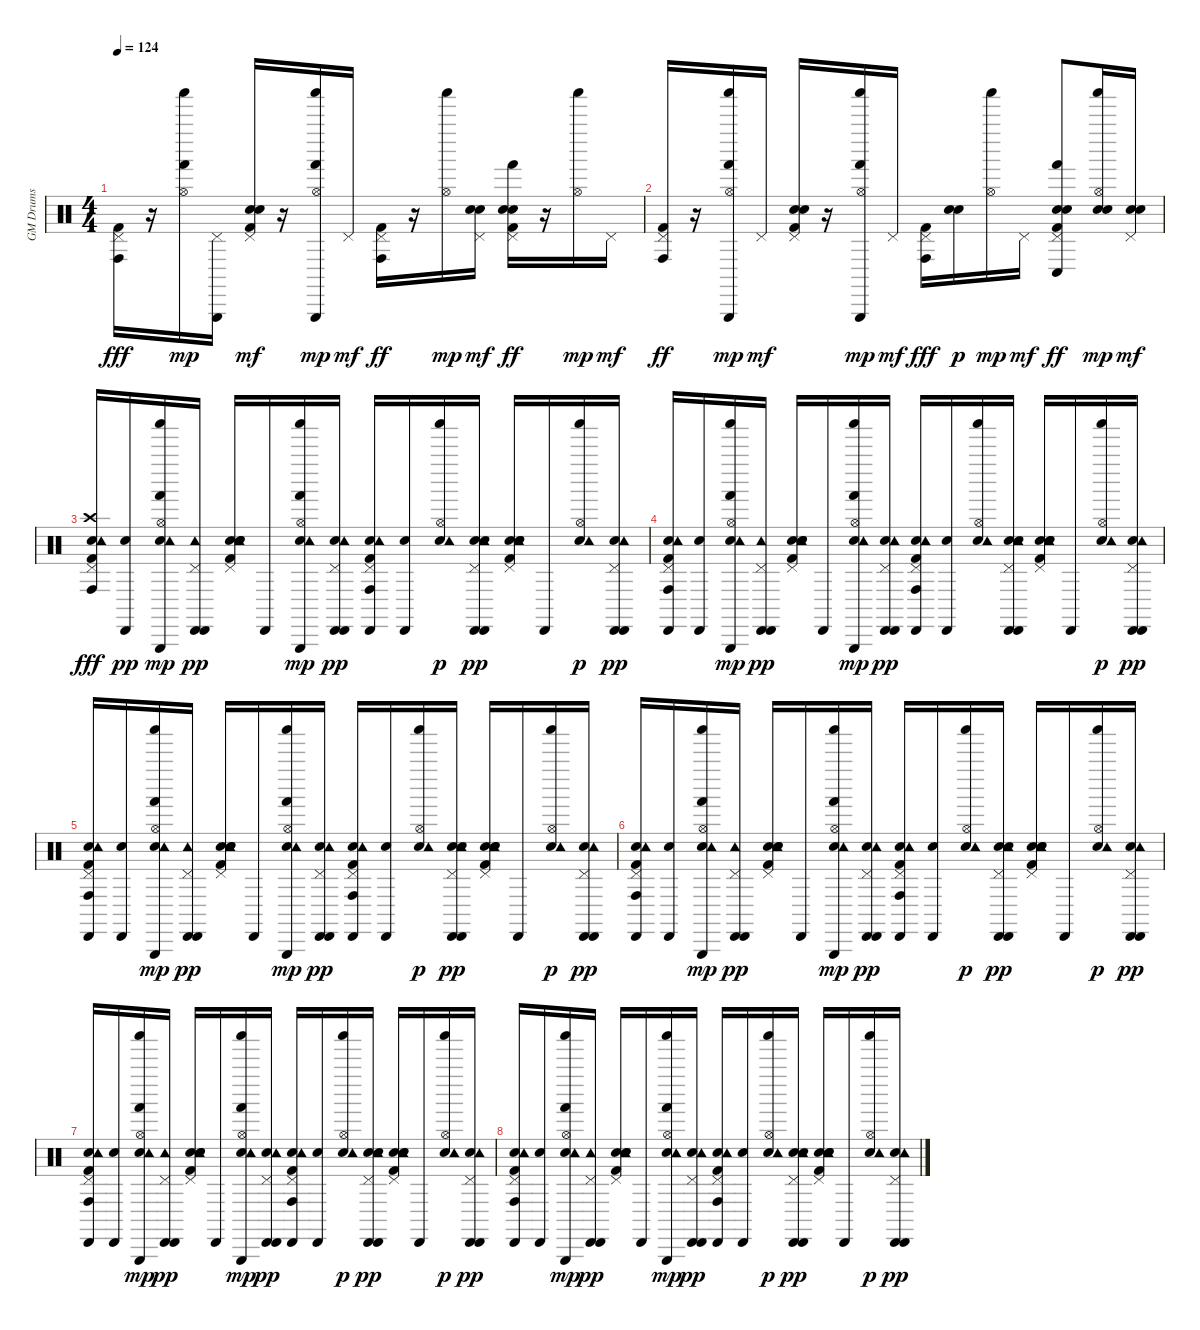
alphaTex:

\track ("GM Drums" "GM Drums") {instrument percussion}
\staff {score}
\articulation defaults
\ts (4 4)
\tempo 124
\clef neutral
\ks c
("Kick (hit) 2" "Pedal Hi-Hat (hit)" "Conga high (hit)").16{dy fff} r.16 ("Hi-Hat (open)" "Hand (hit)" "Shaker (hit)").16{dy mp} ("Pedal Hi-Hat (hit)" "Triangle (hit)").16 ("Kick (hit) 2" "Snare (hit) 2" "Hand Clap (hit)" "Pedal Hi-Hat (hit)").16{dy mf} r.16 ("Hi-Hat (open)" "Hand (hit)" "Triangle (hit)" "Shaker (hit)").16{dy mp} "Pedal Hi-Hat (hit)".16{dy mf} ("Kick (hit) 2" "Pedal Hi-Hat (hit)" "Conga high (hit)").16{dy ff} r.16 ("Hi-Hat (open)" "Shaker (hit)").16{dy mp} ("Snare (hit) 2" "Hand Clap (hit)" "Pedal Hi-Hat (hit)").16{dy mf} ("Kick (hit) 2" "Snare (hit) 2" "Hand Clap (hit)" "Pedal Hi-Hat (hit)" "Hand (hit)").16{dy ff} r.16 ("Hi-Hat (open)" "Shaker (hit)").16{dy mp} "Pedal Hi-Hat (hit)".16{dy mf} |
("Kick (hit) 2" "Pedal Hi-Hat (hit)" "Conga high (hit)").16{dy ff} r.16 ("Hi-Hat (open)" "Hand (hit)" "Triangle (hit)" "Shaker (hit)").16{dy mp} "Pedal Hi-Hat (hit)".16{dy mf} ("Kick (hit) 2" "Snare (hit) 2" "Hand Clap (hit)" "Pedal Hi-Hat (hit)").16 r.16 ("Hi-Hat (open)" "Hand (hit)" "Triangle (hit)" "Shaker (hit)").16{dy mp} "Pedal Hi-Hat (hit)".16{dy mf} ("Kick (hit) 2" "Pedal Hi-Hat (hit)" "Conga high (hit)").16{dy fff} ("Snare (hit) 2" "Hand Clap (hit)").16{dy p} ("Hi-Hat (open)" "Shaker (hit)").16{dy mp} "Pedal Hi-Hat (hit)".16{dy mf} ("Kick (hit) 2" "Snare (hit) 2" "Hand Clap (hit)" "Pedal Hi-Hat (hit)" "Hand (hit)" "Conga low (hit)").8{dy ff} ("Snare (hit) 2" "Hand Clap (hit)" "Hi-Hat (open)" "Shaker (hit)").16{dy mp} ("Snare (hit) 2" "Hand Clap (hit)" "Pedal Hi-Hat (hit)").16{dy mf} |
("Snare (hit)" "Kick (hit) 2" "Pedal Hi-Hat (hit)" "Crash high (hit)" "Tambourine (hit)" "Conga high (hit)").16{dy fff} ("Snare (hit)" "Cabasa (hit)").16{dy pp} ("Snare (hit)" "Hi-Hat (open)" "Tambourine (hit)" "Hand (hit)" "Triangle (hit)" "Shaker (hit)").16{dy mp} ("Pedal Hi-Hat (hit)" "Tambourine (hit)" "Cabasa (hit)" "Cabasa (hit)").16{dy pp} ("Snare (hit)" "Kick (hit) 2" "Snare (hit) 2" "Hand Clap (hit)" "Pedal Hi-Hat (hit)" "Tambourine (hit)").16 "Cabasa (hit)".16 ("Snare (hit)" "Hi-Hat (open)" "Tambourine (hit)" "Hand (hit)" "Triangle (hit)" "Shaker (hit)").16{dy mp} ("Snare (hit)" "Pedal Hi-Hat (hit)" "Tambourine (hit)" "Cabasa (hit)" "Cabasa (hit)").16{dy pp} ("Snare (hit)" "Kick (hit) 2" "Pedal Hi-Hat (hit)" "Tambourine (hit)" "Conga high (hit)" "Cabasa (hit)").16 ("Snare (hit)" "Cabasa (hit)").16 ("Snare (hit)" "Hi-Hat (open)" "Tambourine (hit)" "Shaker (hit)").16{dy p} ("Snare (hit) 2" "Hand Clap (hit)" "Pedal Hi-Hat (hit)" "Tambourine (hit)" "Cabasa (hit)" "Cabasa (hit)").16{dy pp} ("Snare (hit)" "Kick (hit) 2" "Snare (hit) 2" "Hand Clap (hit)" "Pedal Hi-Hat (hit)" "Tambourine (hit)").16 "Cabasa (hit)".16 ("Snare (hit)" "Hi-Hat (open)" "Tambourine (hit)" "Shaker (hit)").16{dy p} ("Snare (hit)" "Pedal Hi-Hat (hit)" "Tambourine (hit)" "Cabasa (hit)" "Cabasa (hit)").16{dy pp} |
("Snare (hit)" "Kick (hit) 2" "Pedal Hi-Hat (hit)" "Tambourine (hit)" "Conga high (hit)" "Cabasa (hit)").16 ("Snare (hit)" "Cabasa (hit)").16 ("Snare (hit)" "Hi-Hat (open)" "Tambourine (hit)" "Hand (hit)" "Triangle (hit)" "Shaker (hit)").16{dy mp} ("Pedal Hi-Hat (hit)" "Tambourine (hit)" "Cabasa (hit)" "Cabasa (hit)").16{dy pp} ("Snare (hit)" "Kick (hit) 2" "Snare (hit) 2" "Hand Clap (hit)" "Pedal Hi-Hat (hit)" "Tambourine (hit)").16 "Cabasa (hit)".16 ("Snare (hit)" "Hi-Hat (open)" "Tambourine (hit)" "Hand (hit)" "Triangle (hit)" "Shaker (hit)").16{dy mp} ("Snare (hit)" "Pedal Hi-Hat (hit)" "Tambourine (hit)" "Cabasa (hit)" "Cabasa (hit)").16{dy pp} ("Snare (hit)" "Kick (hit) 2" "Pedal Hi-Hat (hit)" "Tambourine (hit)" "Conga high (hit)" "Cabasa (hit)").16 ("Snare (hit)" "Cabasa (hit)").16 ("Snare (hit)" "Hi-Hat (open)" "Tambourine (hit)" "Shaker (hit)").16 ("Snare (hit) 2" "Hand Clap (hit)" "Pedal Hi-Hat (hit)" "Tambourine (hit)" "Cabasa (hit)" "Cabasa (hit)").16 ("Snare (hit)" "Kick (hit) 2" "Snare (hit) 2" "Hand Clap (hit)" "Pedal Hi-Hat (hit)" "Tambourine (hit)").16 "Cabasa (hit)".16 ("Snare (hit)" "Hi-Hat (open)" "Tambourine (hit)" "Shaker (hit)").16{dy p} ("Snare (hit)" "Pedal Hi-Hat (hit)" "Tambourine (hit)" "Cabasa (hit)" "Cabasa (hit)").16{dy pp} |
("Snare (hit)" "Kick (hit) 2" "Pedal Hi-Hat (hit)" "Tambourine (hit)" "Conga high (hit)" "Cabasa (hit)").16 ("Snare (hit)" "Cabasa (hit)").16 ("Snare (hit)" "Hi-Hat (open)" "Tambourine (hit)" "Hand (hit)" "Triangle (hit)" "Shaker (hit)").16{dy mp} ("Pedal Hi-Hat (hit)" "Tambourine (hit)" "Cabasa (hit)" "Cabasa (hit)").16{dy pp} ("Snare (hit)" "Kick (hit) 2" "Snare (hit) 2" "Hand Clap (hit)" "Pedal Hi-Hat (hit)" "Tambourine (hit)").16 "Cabasa (hit)".16 ("Snare (hit)" "Hi-Hat (open)" "Tambourine (hit)" "Hand (hit)" "Triangle (hit)" "Shaker (hit)").16{dy mp} ("Snare (hit)" "Pedal Hi-Hat (hit)" "Tambourine (hit)" "Cabasa (hit)" "Cabasa (hit)").16{dy pp} ("Snare (hit)" "Kick (hit) 2" "Pedal Hi-Hat (hit)" "Tambourine (hit)" "Conga high (hit)" "Cabasa (hit)").16 ("Snare (hit)" "Cabasa (hit)").16 ("Snare (hit)" "Hi-Hat (open)" "Tambourine (hit)" "Shaker (hit)").16{dy p} ("Snare (hit) 2" "Hand Clap (hit)" "Pedal Hi-Hat (hit)" "Tambourine (hit)" "Cabasa (hit)" "Cabasa (hit)").16{dy pp} ("Snare (hit)" "Kick (hit) 2" "Snare (hit) 2" "Hand Clap (hit)" "Pedal Hi-Hat (hit)" "Tambourine (hit)").16 "Cabasa (hit)".16 ("Snare (hit)" "Hi-Hat (open)" "Tambourine (hit)" "Shaker (hit)").16{dy p} ("Snare (hit)" "Pedal Hi-Hat (hit)" "Tambourine (hit)" "Cabasa (hit)" "Cabasa (hit)").16{dy pp} |
("Snare (hit)" "Kick (hit) 2" "Pedal Hi-Hat (hit)" "Tambourine (hit)" "Conga high (hit)" "Cabasa (hit)").16 ("Snare (hit)" "Cabasa (hit)").16 ("Snare (hit)" "Hi-Hat (open)" "Tambourine (hit)" "Hand (hit)" "Triangle (hit)" "Shaker (hit)").16{dy mp} ("Pedal Hi-Hat (hit)" "Tambourine (hit)" "Cabasa (hit)" "Cabasa (hit)").16{dy pp} ("Snare (hit)" "Kick (hit) 2" "Snare (hit) 2" "Hand Clap (hit)" "Pedal Hi-Hat (hit)" "Tambourine (hit)").16 "Cabasa (hit)".16 ("Snare (hit)" "Hi-Hat (open)" "Tambourine (hit)" "Hand (hit)" "Triangle (hit)" "Shaker (hit)").16{dy mp} ("Snare (hit)" "Pedal Hi-Hat (hit)" "Tambourine (hit)" "Cabasa (hit)" "Cabasa (hit)").16{dy pp} ("Snare (hit)" "Kick (hit) 2" "Pedal Hi-Hat (hit)" "Tambourine (hit)" "Conga high (hit)" "Cabasa (hit)").16 ("Snare (hit)" "Cabasa (hit)").16 ("Snare (hit)" "Hi-Hat (open)" "Tambourine (hit)" "Shaker (hit)").16{dy p} ("Snare (hit) 2" "Hand Clap (hit)" "Pedal Hi-Hat (hit)" "Tambourine (hit)" "Cabasa (hit)" "Cabasa (hit)").16{dy pp} ("Snare (hit)" "Kick (hit) 2" "Snare (hit) 2" "Hand Clap (hit)" "Pedal Hi-Hat (hit)" "Tambourine (hit)").16 "Cabasa (hit)".16 ("Snare (hit)" "Hi-Hat (open)" "Tambourine (hit)" "Shaker (hit)").16{dy p} ("Snare (hit)" "Pedal Hi-Hat (hit)" "Tambourine (hit)" "Cabasa (hit)" "Cabasa (hit)").16{dy pp} |
("Snare (hit)" "Kick (hit) 2" "Pedal Hi-Hat (hit)" "Tambourine (hit)" "Conga high (hit)" "Cabasa (hit)").16 ("Snare (hit)" "Cabasa (hit)").16 ("Snare (hit)" "Hi-Hat (open)" "Tambourine (hit)" "Hand (hit)" "Triangle (hit)" "Shaker (hit)").16{dy mp} ("Pedal Hi-Hat (hit)" "Tambourine (hit)" "Cabasa (hit)" "Cabasa (hit)").16{dy pp} ("Snare (hit)" "Kick (hit) 2" "Snare (hit) 2" "Hand Clap (hit)" "Pedal Hi-Hat (hit)" "Tambourine (hit)").16 "Cabasa (hit)".16 ("Snare (hit)" "Hi-Hat (open)" "Tambourine (hit)" "Hand (hit)" "Triangle (hit)" "Shaker (hit)").16{dy mp} ("Snare (hit)" "Pedal Hi-Hat (hit)" "Tambourine (hit)" "Cabasa (hit)" "Cabasa (hit)").16{dy pp} ("Snare (hit)" "Kick (hit) 2" "Pedal Hi-Hat (hit)" "Tambourine (hit)" "Conga high (hit)" "Cabasa (hit)").16 ("Snare (hit)" "Cabasa (hit)").16 ("Snare (hit)" "Hi-Hat (open)" "Tambourine (hit)" "Shaker (hit)").16{dy p} ("Snare (hit) 2" "Hand Clap (hit)" "Pedal Hi-Hat (hit)" "Tambourine (hit)" "Cabasa (hit)" "Cabasa (hit)").16{dy pp} ("Snare (hit)" "Kick (hit) 2" "Snare (hit) 2" "Hand Clap (hit)" "Pedal Hi-Hat (hit)" "Tambourine (hit)").16 "Cabasa (hit)".16 ("Snare (hit)" "Hi-Hat (open)" "Tambourine (hit)" "Shaker (hit)").16{dy p} ("Snare (hit)" "Pedal Hi-Hat (hit)" "Tambourine (hit)" "Cabasa (hit)" "Cabasa (hit)").16{dy pp} |
("Snare (hit)" "Kick (hit) 2" "Pedal Hi-Hat (hit)" "Tambourine (hit)" "Conga high (hit)" "Cabasa (hit)").16 ("Snare (hit)" "Cabasa (hit)").16 ("Snare (hit)" "Hi-Hat (open)" "Tambourine (hit)" "Hand (hit)" "Triangle (hit)" "Shaker (hit)").16{dy mp} ("Pedal Hi-Hat (hit)" "Tambourine (hit)" "Cabasa (hit)" "Cabasa (hit)").16{dy pp} ("Snare (hit)" "Kick (hit) 2" "Snare (hit) 2" "Hand Clap (hit)" "Pedal Hi-Hat (hit)" "Tambourine (hit)").16 "Cabasa (hit)".16 ("Snare (hit)" "Hi-Hat (open)" "Tambourine (hit)" "Hand (hit)" "Triangle (hit)" "Shaker (hit)").16{dy mp} ("Snare (hit)" "Pedal Hi-Hat (hit)" "Tambourine (hit)" "Cabasa (hit)" "Cabasa (hit)").16{dy pp} ("Snare (hit)" "Kick (hit) 2" "Pedal Hi-Hat (hit)" "Tambourine (hit)" "Conga high (hit)" "Cabasa (hit)").16 ("Snare (hit)" "Cabasa (hit)").16 ("Snare (hit)" "Hi-Hat (open)" "Tambourine (hit)" "Shaker (hit)").16{dy p} ("Snare (hit) 2" "Hand Clap (hit)" "Pedal Hi-Hat (hit)" "Tambourine (hit)" "Cabasa (hit)" "Cabasa (hit)").16{dy pp} ("Snare (hit)" "Kick (hit) 2" "Snare (hit) 2" "Hand Clap (hit)" "Pedal Hi-Hat (hit)" "Tambourine (hit)").16 "Cabasa (hit)".16 ("Snare (hit)" "Hi-Hat (open)" "Tambourine (hit)" "Shaker (hit)").16{dy p} ("Snare (hit)" "Pedal Hi-Hat (hit)" "Tambourine (hit)" "Cabasa (hit)" "Cabasa (hit)").16{dy pp}
